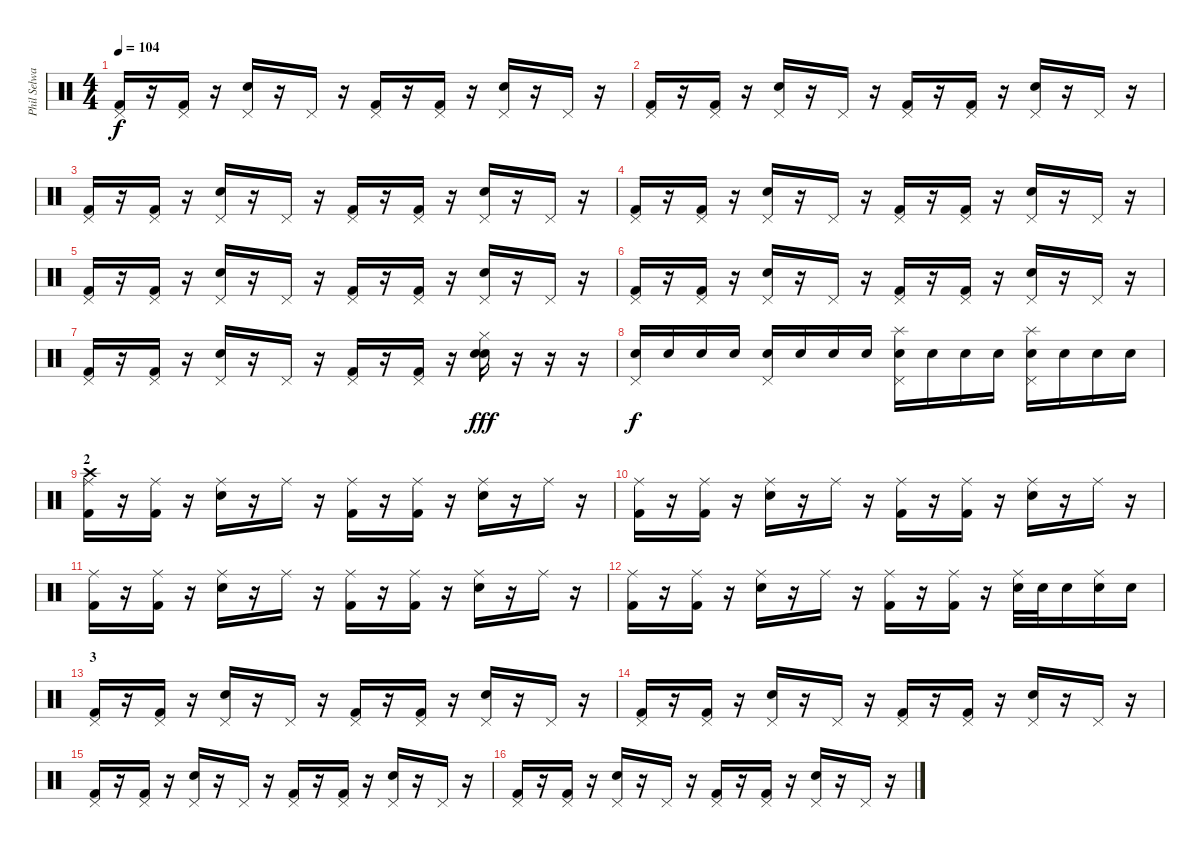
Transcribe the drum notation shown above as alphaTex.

\track ("Phil Selway" "Phil Selwa") {instrument percussion}
\staff {score}
\articulation defaults
\ts (4 4)
\tempo 104
\clef neutral
\ks c
("Pedal Hi-Hat (hit)" "Kick (hit) 2").16{dy f} r.16 ("Pedal Hi-Hat (hit)" "Kick (hit) 2").16 r.16 ("Pedal Hi-Hat (hit)" "Electric Snare (hit)").16 r.16 "Pedal Hi-Hat (hit)".16 r.16 ("Pedal Hi-Hat (hit)" "Kick (hit) 2").16 r.16 ("Pedal Hi-Hat (hit)" "Kick (hit) 2").16 r.16 ("Pedal Hi-Hat (hit)" "Electric Snare (hit)").16 r.16 "Pedal Hi-Hat (hit)".16 r.16 |
("Pedal Hi-Hat (hit)" "Kick (hit) 2").16 r.16 ("Pedal Hi-Hat (hit)" "Kick (hit) 2").16 r.16 ("Pedal Hi-Hat (hit)" "Electric Snare (hit)").16 r.16 "Pedal Hi-Hat (hit)".16 r.16 ("Pedal Hi-Hat (hit)" "Kick (hit) 2").16 r.16 ("Pedal Hi-Hat (hit)" "Kick (hit) 2").16 r.16 ("Pedal Hi-Hat (hit)" "Electric Snare (hit)").16 r.16 "Pedal Hi-Hat (hit)".16 r.16 |
("Pedal Hi-Hat (hit)" "Kick (hit) 2").16 r.16 ("Pedal Hi-Hat (hit)" "Kick (hit) 2").16 r.16 ("Pedal Hi-Hat (hit)" "Electric Snare (hit)").16 r.16 "Pedal Hi-Hat (hit)".16 r.16 ("Pedal Hi-Hat (hit)" "Kick (hit) 2").16 r.16 ("Pedal Hi-Hat (hit)" "Kick (hit) 2").16 r.16 ("Pedal Hi-Hat (hit)" "Electric Snare (hit)").16 r.16 "Pedal Hi-Hat (hit)".16 r.16 |
("Pedal Hi-Hat (hit)" "Kick (hit) 2").16 r.16 ("Pedal Hi-Hat (hit)" "Kick (hit) 2").16 r.16 ("Pedal Hi-Hat (hit)" "Electric Snare (hit)").16 r.16 "Pedal Hi-Hat (hit)".16 r.16 ("Pedal Hi-Hat (hit)" "Kick (hit) 2").16 r.16 ("Pedal Hi-Hat (hit)" "Kick (hit) 2").16 r.16 ("Pedal Hi-Hat (hit)" "Electric Snare (hit)").16 r.16 "Pedal Hi-Hat (hit)".16 r.16 |
("Pedal Hi-Hat (hit)" "Kick (hit) 2").16 r.16 ("Pedal Hi-Hat (hit)" "Kick (hit) 2").16 r.16 ("Pedal Hi-Hat (hit)" "Electric Snare (hit)").16 r.16 "Pedal Hi-Hat (hit)".16 r.16 ("Pedal Hi-Hat (hit)" "Kick (hit) 2").16 r.16 ("Pedal Hi-Hat (hit)" "Kick (hit) 2").16 r.16 ("Pedal Hi-Hat (hit)" "Electric Snare (hit)").16 r.16 "Pedal Hi-Hat (hit)".16 r.16 |
("Pedal Hi-Hat (hit)" "Kick (hit) 2").16 r.16 ("Pedal Hi-Hat (hit)" "Kick (hit) 2").16 r.16 ("Pedal Hi-Hat (hit)" "Electric Snare (hit)").16 r.16 "Pedal Hi-Hat (hit)".16 r.16 ("Pedal Hi-Hat (hit)" "Kick (hit) 2").16 r.16 ("Pedal Hi-Hat (hit)" "Kick (hit) 2").16 r.16 ("Pedal Hi-Hat (hit)" "Electric Snare (hit)").16 r.16 "Pedal Hi-Hat (hit)".16 r.16 |
("Pedal Hi-Hat (hit)" "Kick (hit) 2").16 r.16 ("Pedal Hi-Hat (hit)" "Kick (hit) 2").16 r.16 ("Pedal Hi-Hat (hit)" "Electric Snare (hit)").16 r.16 "Pedal Hi-Hat (hit)".16 r.16 ("Pedal Hi-Hat (hit)" "Kick (hit) 2").16 r.16 ("Pedal Hi-Hat (hit)" "Kick (hit) 2").16 r.16 ("Hi-Hat (closed)" "Snare (hit) 2" "Electric Snare (hit)").16{bu 240 dy fff} r.16 r.16 r.16 |
("Pedal Hi-Hat (hit)" "Electric Snare (hit)").16{dy f} "Electric Snare (hit)".16 "Electric Snare (hit)".16 "Electric Snare (hit)".16 ("Pedal Hi-Hat (hit)" "Electric Snare (hit)").16 "Electric Snare (hit)".16 "Electric Snare (hit)".16 "Electric Snare (hit)".16 ("Pedal Hi-Hat (hit)" "Splash (hit)" "Electric Snare (hit)").16 "Electric Snare (hit)".16 "Electric Snare (hit)".16 "Electric Snare (hit)".16 ("Pedal Hi-Hat (hit)" "Splash (hit)" "Electric Snare (hit)").16 "Electric Snare (hit)".16 "Electric Snare (hit)".16 "Electric Snare (hit)".16 |
\section ("" "2")
("Ride (middle)" "Crash high (hit)" "Kick (hit) 2").16 r.16 ("Ride (middle)" "Kick (hit) 2").16 r.16 ("Ride (middle)" "Electric Snare (hit)").16 r.16 "Ride (middle)".16 r.16 ("Ride (middle)" "Kick (hit) 2").16 r.16 ("Ride (middle)" "Kick (hit) 2").16 r.16 ("Ride (middle)" "Electric Snare (hit)").16 r.16 "Ride (middle)".16 r.16 |
("Ride (middle)" "Kick (hit) 2").16 r.16 ("Ride (middle)" "Kick (hit) 2").16 r.16 ("Ride (middle)" "Electric Snare (hit)").16 r.16 "Ride (middle)".16 r.16 ("Ride (middle)" "Kick (hit) 2").16 r.16 ("Ride (middle)" "Kick (hit) 2").16 r.16 ("Ride (middle)" "Electric Snare (hit)").16 r.16 "Ride (middle)".16 r.16 |
("Ride (middle)" "Kick (hit) 2").16 r.16 ("Ride (middle)" "Kick (hit) 2").16 r.16 ("Ride (middle)" "Electric Snare (hit)").16 r.16 "Ride (middle)".16 r.16 ("Ride (middle)" "Kick (hit) 2").16 r.16 ("Ride (middle)" "Kick (hit) 2").16 r.16 ("Ride (middle)" "Electric Snare (hit)").16 r.16 "Ride (middle)".16 r.16 |
("Ride (middle)" "Kick (hit) 2").16 r.16 ("Ride (middle)" "Kick (hit) 2").16 r.16 ("Ride (middle)" "Electric Snare (hit)").16 r.16 "Ride (middle)".16 r.16 ("Ride (middle)" "Kick (hit) 2").16 r.16 ("Ride (middle)" "Kick (hit) 2").16 r.16 ("Ride (middle)" "Electric Snare (hit)").32 "Electric Snare (hit)".32 "Electric Snare (hit)".16 ("Ride (middle)" "Electric Snare (hit)").16 "Snare (hit) 2".16 |
\section ("" "3")
("Pedal Hi-Hat (hit)" "Kick (hit) 2").16 r.16 ("Pedal Hi-Hat (hit)" "Kick (hit) 2").16 r.16 ("Pedal Hi-Hat (hit)" "Electric Snare (hit)").16 r.16 "Pedal Hi-Hat (hit)".16 r.16 ("Pedal Hi-Hat (hit)" "Kick (hit) 2").16 r.16 ("Pedal Hi-Hat (hit)" "Kick (hit) 2").16 r.16 ("Pedal Hi-Hat (hit)" "Electric Snare (hit)").16 r.16 "Pedal Hi-Hat (hit)".16 r.16 |
("Pedal Hi-Hat (hit)" "Kick (hit) 2").16 r.16 ("Pedal Hi-Hat (hit)" "Kick (hit) 2").16 r.16 ("Pedal Hi-Hat (hit)" "Electric Snare (hit)").16 r.16 "Pedal Hi-Hat (hit)".16 r.16 ("Pedal Hi-Hat (hit)" "Kick (hit) 2").16 r.16 ("Pedal Hi-Hat (hit)" "Kick (hit) 2").16 r.16 ("Pedal Hi-Hat (hit)" "Electric Snare (hit)").16 r.16 "Pedal Hi-Hat (hit)".16 r.16 |
("Pedal Hi-Hat (hit)" "Kick (hit) 2").16 r.16 ("Pedal Hi-Hat (hit)" "Kick (hit) 2").16 r.16 ("Pedal Hi-Hat (hit)" "Electric Snare (hit)").16 r.16 "Pedal Hi-Hat (hit)".16 r.16 ("Pedal Hi-Hat (hit)" "Kick (hit) 2").16 r.16 ("Pedal Hi-Hat (hit)" "Kick (hit) 2").16 r.16 ("Pedal Hi-Hat (hit)" "Electric Snare (hit)").16 r.16 "Pedal Hi-Hat (hit)".16 r.16 |
("Pedal Hi-Hat (hit)" "Kick (hit) 2").16 r.16 ("Pedal Hi-Hat (hit)" "Kick (hit) 2").16 r.16 ("Pedal Hi-Hat (hit)" "Electric Snare (hit)").16 r.16 "Pedal Hi-Hat (hit)".16 r.16 ("Pedal Hi-Hat (hit)" "Kick (hit) 2").16 r.16 ("Pedal Hi-Hat (hit)" "Kick (hit) 2").16 r.16 ("Pedal Hi-Hat (hit)" "Electric Snare (hit)").16 r.16 "Pedal Hi-Hat (hit)".16 r.16
